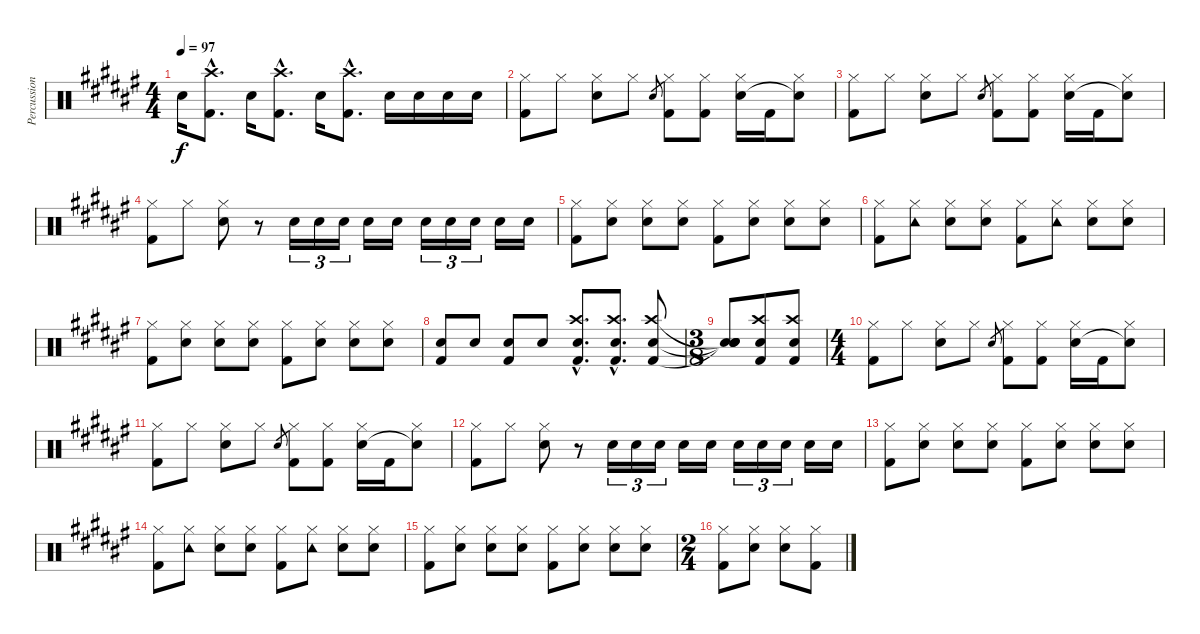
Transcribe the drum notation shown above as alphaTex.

\track ("Percussion (John Bonham)" "Percussion") {instrument percussion}
\staff {score}
\articulation defaults
\ts (4 4)
\tempo 97
\clef neutral
\ks f# "Snare (hit) 2".16{dy f}
("Crash high (hit)"{hac} "Kick (hit) 2"{hac}).8{d} "Snare (hit) 2".16 ("Crash high (hit)"{hac} "Kick (hit) 2"{hac}).8{d} "Snare (hit) 2".16 ("Crash high (hit)"{hac} "Kick (hit) 2"{hac}).8{d} "Snare (hit) 2".16 "Snare (hit) 2".16 "Snare (hit) 2".16 "Snare (hit) 2".16 |
("Hi-Hat (closed)" "Kick (hit) 2").8 "Hi-Hat (closed)".8 ("Hi-Hat (closed)" "Snare (hit) 2").8 "Hi-Hat (closed)".8 "Snare (hit) 2".8{gr} ("Hi-Hat (closed)" "Kick (hit) 2").8 ("Hi-Hat (closed)" "Kick (hit) 2").8 ("Hi-Hat (closed)" "Snare (hit) 2").16 "Kick (hit) 2".16 ("Hi-Hat (closed)" "Snare (hit)"{t}).8 |
("Hi-Hat (closed)" "Kick (hit) 2").8 "Hi-Hat (closed)".8 ("Hi-Hat (closed)" "Snare (hit) 2").8 "Hi-Hat (closed)".8 "Snare (hit) 2".8{gr} ("Hi-Hat (closed)" "Kick (hit) 2").8 ("Hi-Hat (closed)" "Kick (hit) 2").8 ("Hi-Hat (closed)" "Snare (hit) 2").16 "Kick (hit) 2".16 ("Hi-Hat (closed)" "Snare (hit)"{t}).8 |
("Hi-Hat (closed)" "Kick (hit) 2").8 "Hi-Hat (closed)".8 ("Hi-Hat (closed)" "Snare (hit) 2").8 r.8 "Snare (hit) 2".16{tu (3 2)} "Snare (hit) 2".16{tu (3 2)} "Snare (hit) 2".16{tu (3 2)} "Snare (hit) 2".16 "Snare (hit) 2".16 "Snare (hit) 2".16{tu (3 2)} "Snare (hit) 2".16{tu (3 2)} "Snare (hit) 2".16{tu (3 2)} "Snare (hit) 2".16 "Snare (hit) 2".16 |
("Hi-Hat (closed)" "Kick (hit) 2").8 ("Hi-Hat (closed)" "Snare (hit) 2").8 ("Hi-Hat (closed)" "Snare (hit) 2").8 ("Hi-Hat (closed)" "Snare (hit) 2").8 ("Hi-Hat (closed)" "Kick (hit) 2").8 ("Hi-Hat (closed)" "Snare (hit) 2").8 ("Hi-Hat (closed)" "Snare (hit) 2").8 ("Hi-Hat (closed)" "Snare (hit) 2").8 |
("Hi-Hat (closed)" "Kick (hit) 2").8 ("Hi-Hat (closed)" "Tambourine (hit)").8 ("Hi-Hat (closed)" "Snare (hit) 2").8 ("Hi-Hat (closed)" "Snare (hit) 2").8 ("Hi-Hat (closed)" "Kick (hit) 2").8 ("Hi-Hat (closed)" "Tambourine (hit)").8 ("Hi-Hat (closed)" "Snare (hit) 2").8 ("Hi-Hat (closed)" "Snare (hit) 2").8 |
("Hi-Hat (closed)" "Kick (hit) 2").8 ("Hi-Hat (closed)" "Snare (hit) 2").8 ("Hi-Hat (closed)" "Snare (hit) 2").8 ("Hi-Hat (closed)" "Snare (hit) 2").8 ("Hi-Hat (closed)" "Kick (hit) 2").8 ("Hi-Hat (closed)" "Snare (hit) 2").8 ("Hi-Hat (closed)" "Snare (hit) 2").8 ("Hi-Hat (closed)" "Snare (hit) 2").8 |
("Snare (hit) 2" "Kick (hit) 2").8 "Snare (hit) 2".8 ("Snare (hit) 2" "Kick (hit) 2").8 "Snare (hit) 2".8 ("Crash high (hit)"{hac} "Snare (hit) 2"{hac} "Kick (hit) 2"{hac}).8{d} ("Crash high (hit)"{hac} "Snare (hit) 2"{hac} "Kick (hit) 2"{hac}).8{d} ("Crash high (hit)" "Snare (hit) 2" "Kick (hit) 2").8 |
\ts (3 8)
("Snare (hit)"{t} "Snare (hit)"{t} "Snare (hit)"{t} "Snare (hit)").8 ("Crash high (hit)" "Snare (hit) 2" "Kick (hit) 2").8 ("Crash high (hit)" "Snare (hit) 2" "Kick (hit) 2").8 |
\ts (4 4)
("Hi-Hat (closed)" "Kick (hit) 2").8 "Hi-Hat (closed)".8 ("Hi-Hat (closed)" "Snare (hit) 2").8 "Hi-Hat (closed)".8 "Snare (hit) 2".8{gr} ("Hi-Hat (closed)" "Kick (hit) 2").8 ("Hi-Hat (closed)" "Kick (hit) 2").8 ("Hi-Hat (closed)" "Snare (hit) 2").16 "Kick (hit) 2".16 ("Hi-Hat (closed)" "Snare (hit)"{t}).8 |
("Hi-Hat (closed)" "Kick (hit) 2").8 "Hi-Hat (closed)".8 ("Hi-Hat (closed)" "Snare (hit) 2").8 "Hi-Hat (closed)".8 "Snare (hit) 2".8{gr} ("Hi-Hat (closed)" "Kick (hit) 2").8 ("Hi-Hat (closed)" "Kick (hit) 2").8 ("Hi-Hat (closed)" "Snare (hit) 2").16 "Kick (hit) 2".16 ("Hi-Hat (closed)" "Snare (hit)"{t}).8 |
("Hi-Hat (closed)" "Kick (hit) 2").8 "Hi-Hat (closed)".8 ("Hi-Hat (closed)" "Snare (hit) 2").8 r.8 "Snare (hit) 2".16{tu (3 2)} "Snare (hit) 2".16{tu (3 2)} "Snare (hit) 2".16{tu (3 2)} "Snare (hit) 2".16 "Snare (hit) 2".16 "Snare (hit) 2".16{tu (3 2)} "Snare (hit) 2".16{tu (3 2)} "Snare (hit) 2".16{tu (3 2)} "Snare (hit) 2".16 "Snare (hit) 2".16 |
("Hi-Hat (closed)" "Kick (hit) 2").8 ("Hi-Hat (closed)" "Snare (hit) 2").8 ("Hi-Hat (closed)" "Snare (hit) 2").8 ("Hi-Hat (closed)" "Snare (hit) 2").8 ("Hi-Hat (closed)" "Kick (hit) 2").8 ("Hi-Hat (closed)" "Snare (hit) 2").8 ("Hi-Hat (closed)" "Snare (hit) 2").8 ("Hi-Hat (closed)" "Snare (hit) 2").8 |
("Hi-Hat (closed)" "Kick (hit) 2").8 ("Hi-Hat (closed)" "Tambourine (hit)").8 ("Hi-Hat (closed)" "Snare (hit) 2").8 ("Hi-Hat (closed)" "Snare (hit) 2").8 ("Hi-Hat (closed)" "Kick (hit) 2").8 ("Hi-Hat (closed)" "Tambourine (hit)").8 ("Hi-Hat (closed)" "Snare (hit) 2").8 ("Hi-Hat (closed)" "Snare (hit) 2").8 |
("Hi-Hat (closed)" "Kick (hit) 2").8 ("Hi-Hat (closed)" "Snare (hit) 2").8 ("Hi-Hat (closed)" "Snare (hit) 2").8 ("Hi-Hat (closed)" "Snare (hit) 2").8 ("Hi-Hat (closed)" "Kick (hit) 2").8 ("Hi-Hat (closed)" "Snare (hit) 2").8 ("Hi-Hat (closed)" "Snare (hit) 2").8 ("Hi-Hat (closed)" "Snare (hit) 2").8 |
\ts (2 4)
("Hi-Hat (closed)" "Kick (hit) 2").8 ("Hi-Hat (closed)" "Snare (hit) 2").8 ("Hi-Hat (closed)" "Snare (hit) 2").8 ("Hi-Hat (closed)" "Kick (hit) 2").8
